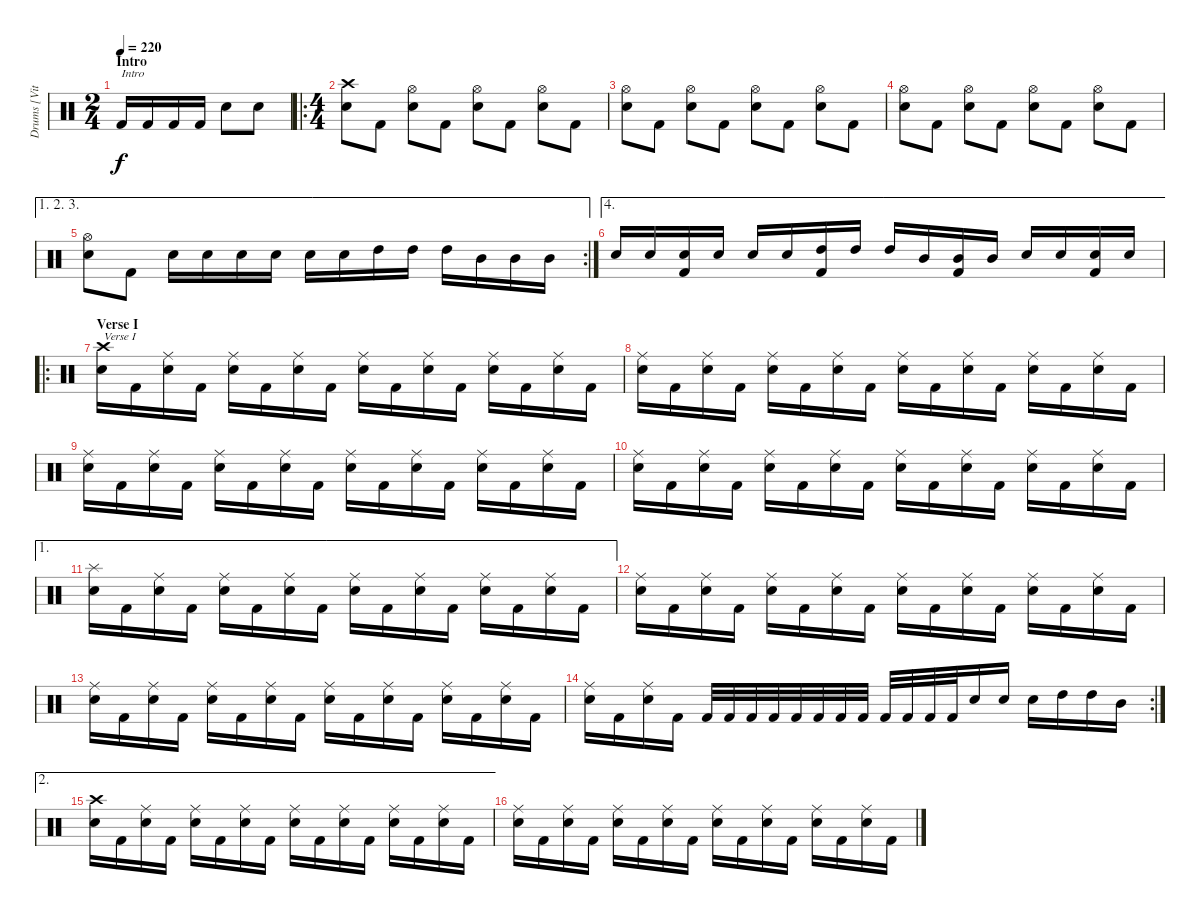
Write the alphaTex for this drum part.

\track ("Drums [Vitek]" "Drums [Vit") {instrument percussion}
\staff {score}
\articulation defaults
\ts (2 4)
\section ("" "Intro")
\tempo 220
\clef neutral
\ks c "Kick (hit) 2".16{txt "Intro" dy f} "Kick (hit) 2".16 "Kick (hit) 2".16 "Kick (hit) 2".16 "Electric Snare (hit)".8 "Electric Snare (hit)".8
|
\ro
\ts (4 4)
("Crash high (hit)" "Electric Snare (hit)").8 "Kick (hit) 2".8 ("Hi-Hat (open)" "Electric Snare (hit)").8 "Kick (hit) 2".8 ("Hi-Hat (open)" "Electric Snare (hit)").8 "Kick (hit) 2".8 ("Hi-Hat (open)" "Electric Snare (hit)").8 "Kick (hit) 2".8 |
("Hi-Hat (open)" "Electric Snare (hit)").8 "Kick (hit) 2".8 ("Hi-Hat (open)" "Electric Snare (hit)").8 "Kick (hit) 2".8 ("Hi-Hat (open)" "Electric Snare (hit)").8 "Kick (hit) 2".8 ("Hi-Hat (open)" "Electric Snare (hit)").8 "Kick (hit) 2".8 |
("Hi-Hat (open)" "Electric Snare (hit)").8 "Kick (hit) 2".8 ("Hi-Hat (open)" "Electric Snare (hit)").8 "Kick (hit) 2".8 ("Hi-Hat (open)" "Electric Snare (hit)").8 "Kick (hit) 2".8 ("Hi-Hat (open)" "Electric Snare (hit)").8 "Kick (hit) 2".8 |
\ae (1 2 3)
\rc 2
("Hi-Hat (open)" "Electric Snare (hit)").8 "Kick (hit) 2".8 "Electric Snare (hit)".16 "Electric Snare (hit)".16 "Electric Snare (hit)".16 "Electric Snare (hit)".16 "Electric Snare (hit)".16 "Electric Snare (hit)".16 "High Tom (hit)".16 "High Tom (hit)".16 "High Tom (hit)".16 "Mid Tom (hit)".16 "Mid Tom (hit)".16 "Mid Tom (hit)".16 |
\ae 4 "Electric Snare (hit)".16 "Electric Snare (hit)".16
("Electric Snare (hit)" "Kick (hit) 2").16 "Electric Snare (hit)".16 "Electric Snare (hit)".16 "Electric Snare (hit)".16 ("High Tom (hit)" "Kick (hit) 2").16 "High Tom (hit)".16 "High Tom (hit)".16 "Mid Tom (hit)".16 ("Mid Tom (hit)" "Kick (hit) 2").16 "Mid Tom (hit)".16 "Electric Snare (hit)".16 "Electric Snare (hit)".16 ("Electric Snare (hit)" "Kick (hit) 2").16 "Electric Snare (hit)".16 |
\ro
\section ("" "Verse I")
("Crash high (hit)" "Electric Snare (hit)").16{txt "Verse I"} "Kick (hit) 2".16 ("Ride (middle)" "Electric Snare (hit)").16 "Kick (hit) 2".16 ("Ride (middle)" "Electric Snare (hit)").16 "Kick (hit) 2".16 ("Ride (middle)" "Electric Snare (hit)").16 "Kick (hit) 2".16 ("Ride (middle)" "Electric Snare (hit)").16 "Kick (hit) 2".16 ("Ride (middle)" "Electric Snare (hit)").16 "Kick (hit) 2".16 ("Ride (middle)" "Electric Snare (hit)").16 "Kick (hit) 2".16 ("Ride (middle)" "Electric Snare (hit)").16 "Kick (hit) 2".16 |
("Ride (middle)" "Electric Snare (hit)").16 "Kick (hit) 2".16 ("Ride (middle)" "Electric Snare (hit)").16 "Kick (hit) 2".16 ("Ride (middle)" "Electric Snare (hit)").16 "Kick (hit) 2".16 ("Ride (middle)" "Electric Snare (hit)").16 "Kick (hit) 2".16 ("Ride (middle)" "Electric Snare (hit)").16 "Kick (hit) 2".16 ("Ride (middle)" "Electric Snare (hit)").16 "Kick (hit) 2".16 ("Ride (middle)" "Electric Snare (hit)").16 "Kick (hit) 2".16 ("Ride (middle)" "Electric Snare (hit)").16 "Kick (hit) 2".16 |
("Ride (middle)" "Electric Snare (hit)").16 "Kick (hit) 2".16 ("Ride (middle)" "Electric Snare (hit)").16 "Kick (hit) 2".16 ("Ride (middle)" "Electric Snare (hit)").16 "Kick (hit) 2".16 ("Ride (middle)" "Electric Snare (hit)").16 "Kick (hit) 2".16 ("Ride (middle)" "Electric Snare (hit)").16 "Kick (hit) 2".16 ("Ride (middle)" "Electric Snare (hit)").16 "Kick (hit) 2".16 ("Ride (middle)" "Electric Snare (hit)").16 "Kick (hit) 2".16 ("Ride (middle)" "Electric Snare (hit)").16 "Kick (hit) 2".16 |
("Ride (middle)" "Electric Snare (hit)").16 "Kick (hit) 2".16 ("Ride (middle)" "Electric Snare (hit)").16 "Kick (hit) 2".16 ("Ride (middle)" "Electric Snare (hit)").16 "Kick (hit) 2".16 ("Ride (middle)" "Electric Snare (hit)").16 "Kick (hit) 2".16 ("Ride (middle)" "Electric Snare (hit)").16 "Kick (hit) 2".16 ("Ride (middle)" "Electric Snare (hit)").16 "Kick (hit) 2".16 ("Ride (middle)" "Electric Snare (hit)").16 "Kick (hit) 2".16 ("Ride (middle)" "Electric Snare (hit)").16 "Kick (hit) 2".16 |
\ae 1
("Splash (hit)" "Electric Snare (hit)").16 "Kick (hit) 2".16 ("Ride (middle)" "Electric Snare (hit)").16 "Kick (hit) 2".16 ("Ride (middle)" "Electric Snare (hit)").16 "Kick (hit) 2".16 ("Ride (middle)" "Electric Snare (hit)").16 "Kick (hit) 2".16 ("Ride (middle)" "Electric Snare (hit)").16 "Kick (hit) 2".16 ("Ride (middle)" "Electric Snare (hit)").16 "Kick (hit) 2".16 ("Ride (middle)" "Electric Snare (hit)").16 "Kick (hit) 2".16 ("Ride (middle)" "Electric Snare (hit)").16 "Kick (hit) 2".16 |
("Ride (middle)" "Electric Snare (hit)").16 "Kick (hit) 2".16 ("Ride (middle)" "Electric Snare (hit)").16 "Kick (hit) 2".16 ("Ride (middle)" "Electric Snare (hit)").16 "Kick (hit) 2".16 ("Ride (middle)" "Electric Snare (hit)").16 "Kick (hit) 2".16 ("Ride (middle)" "Electric Snare (hit)").16 "Kick (hit) 2".16 ("Ride (middle)" "Electric Snare (hit)").16 "Kick (hit) 2".16 ("Ride (middle)" "Electric Snare (hit)").16 "Kick (hit) 2".16 ("Ride (middle)" "Electric Snare (hit)").16 "Kick (hit) 2".16 |
("Ride (middle)" "Electric Snare (hit)").16 "Kick (hit) 2".16 ("Ride (middle)" "Electric Snare (hit)").16 "Kick (hit) 2".16 ("Ride (middle)" "Electric Snare (hit)").16 "Kick (hit) 2".16 ("Ride (middle)" "Electric Snare (hit)").16 "Kick (hit) 2".16 ("Ride (middle)" "Electric Snare (hit)").16 "Kick (hit) 2".16 ("Ride (middle)" "Electric Snare (hit)").16 "Kick (hit) 2".16 ("Ride (middle)" "Electric Snare (hit)").16 "Kick (hit) 2".16 ("Ride (middle)" "Electric Snare (hit)").16 "Kick (hit) 2".16 |
\rc 2
("Ride (middle)" "Electric Snare (hit)").16 "Kick (hit) 2".16 ("Ride (middle)" "Electric Snare (hit)").16 "Kick (hit) 2".16 "Kick (hit) 2".32 "Kick (hit) 2".32 "Kick (hit) 2".32 "Kick (hit) 2".32 "Kick (hit) 2".32 "Kick (hit) 2".32 "Kick (hit) 2".32 "Kick (hit) 2".32 "Kick (hit) 2".32 "Kick (hit) 2".32 "Kick (hit) 2".32 "Kick (hit) 2".32 "Electric Snare (hit)".16 "Electric Snare (hit)".16 "Electric Snare (hit)".16 "High Tom (hit)".16 "High Tom (hit)".16 "Mid Tom (hit)".16 |
\ae 2
("Crash high (hit)" "Electric Snare (hit)").16 "Kick (hit) 2".16 ("Ride (middle)" "Electric Snare (hit)").16 "Kick (hit) 2".16 ("Ride (middle)" "Electric Snare (hit)").16 "Kick (hit) 2".16 ("Ride (middle)" "Electric Snare (hit)").16 "Kick (hit) 2".16 ("Ride (middle)" "Electric Snare (hit)").16 "Kick (hit) 2".16 ("Ride (middle)" "Electric Snare (hit)").16 "Kick (hit) 2".16 ("Ride (middle)" "Electric Snare (hit)").16 "Kick (hit) 2".16 ("Ride (middle)" "Electric Snare (hit)").16 "Kick (hit) 2".16 |
("Ride (middle)" "Electric Snare (hit)").16 "Kick (hit) 2".16 ("Ride (middle)" "Electric Snare (hit)").16 "Kick (hit) 2".16 ("Ride (middle)" "Electric Snare (hit)").16 "Kick (hit) 2".16 ("Ride (middle)" "Electric Snare (hit)").16 "Kick (hit) 2".16 ("Ride (middle)" "Electric Snare (hit)").16 "Kick (hit) 2".16 ("Ride (middle)" "Electric Snare (hit)").16 "Kick (hit) 2".16 ("Ride (middle)" "Electric Snare (hit)").16 "Kick (hit) 2".16 ("Ride (middle)" "Electric Snare (hit)").16 "Kick (hit) 2".16
